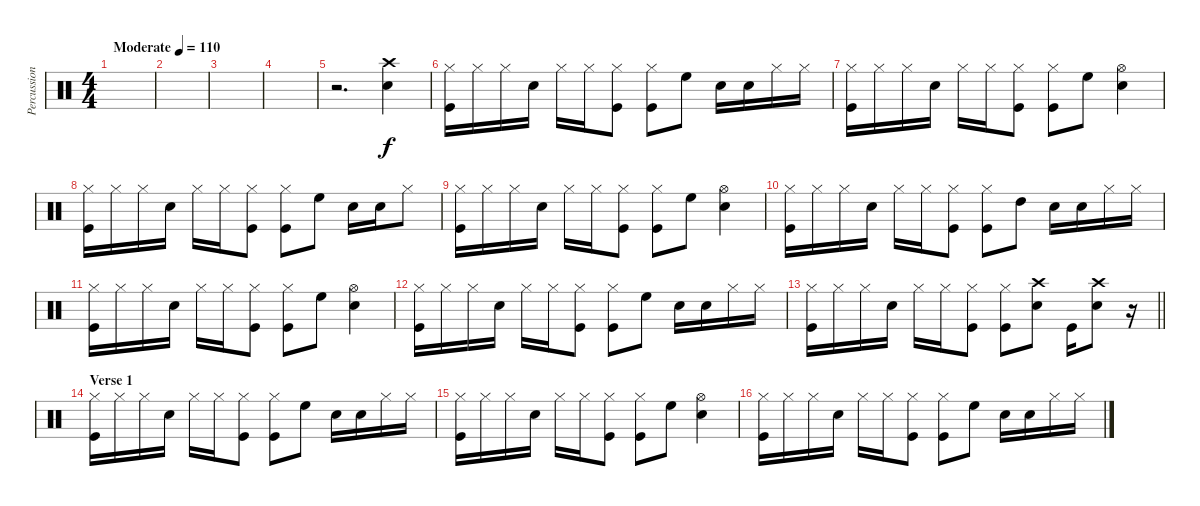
\track ("Percussion" "Percussion") {instrument percussion}
\staff {score}
\articulation defaults
\ts (4 4)
\tempo (110 "Moderate")
\clef neutral
\ks c
|
|
|
|
r.2{d} ("Crash high (hit)" "Snare (hit) 2").4 |
("Kick (hit)" "Hi-Hat (closed)").16 "Hi-Hat (closed)".16 "Hi-Hat (closed)".16 "Snare (hit) 2".16 "Hi-Hat (closed)".16 "Hi-Hat (closed)".16 ("Kick (hit)" "Hi-Hat (closed)").8 ("Kick (hit)" "Hi-Hat (closed)").8 "High Floor Tom (hit)".8 "Snare (hit) 2".16 "Snare (hit) 2".16 "Hi-Hat (closed)".16 "Hi-Hat (closed)".16 |
("Kick (hit)" "Hi-Hat (closed)").16 "Hi-Hat (closed)".16 "Hi-Hat (closed)".16 "Snare (hit) 2".16 "Hi-Hat (closed)".16 "Hi-Hat (closed)".16 ("Kick (hit)" "Hi-Hat (closed)").8 ("Kick (hit)" "Hi-Hat (closed)").8 "High Floor Tom (hit)".8 ("Hi-Hat (open)" "Snare (hit) 2").4 |
("Kick (hit)" "Hi-Hat (closed)").16 "Hi-Hat (closed)".16 "Hi-Hat (closed)".16 "Snare (hit) 2".16 "Hi-Hat (closed)".16 "Hi-Hat (closed)".16 ("Kick (hit)" "Hi-Hat (closed)").8 ("Kick (hit)" "Hi-Hat (closed)").8 "High Floor Tom (hit)".8 "Snare (hit) 2".16 "Snare (hit) 2".16 "Hi-Hat (closed)".8 |
("Kick (hit)" "Hi-Hat (closed)").16 "Hi-Hat (closed)".16 "Hi-Hat (closed)".16 "Snare (hit) 2".16 "Hi-Hat (closed)".16 "Hi-Hat (closed)".16 ("Kick (hit)" "Hi-Hat (closed)").8 ("Kick (hit)" "Hi-Hat (closed)").8 "High Floor Tom (hit)".8 ("Hi-Hat (open)" "Snare (hit) 2").4 |
("Kick (hit)" "Hi-Hat (closed)").16 "Hi-Hat (closed)".16 "Hi-Hat (closed)".16 "Snare (hit) 2".16 "Hi-Hat (closed)".16 "Hi-Hat (closed)".16 ("Kick (hit)" "Hi-Hat (closed)").8 ("Kick (hit)" "Hi-Hat (closed)").8 "High Tom (hit)".8 "Snare (hit) 2".16 "Snare (hit) 2".16 "Hi-Hat (closed)".16 "Hi-Hat (closed)".16 |
("Kick (hit)" "Hi-Hat (closed)").16 "Hi-Hat (closed)".16 "Hi-Hat (closed)".16 "Snare (hit) 2".16 "Hi-Hat (closed)".16 "Hi-Hat (closed)".16 ("Kick (hit)" "Hi-Hat (closed)").8 ("Kick (hit)" "Hi-Hat (closed)").8 "High Floor Tom (hit)".8 ("Hi-Hat (open)" "Snare (hit) 2").4 |
("Kick (hit)" "Hi-Hat (closed)").16 "Hi-Hat (closed)".16 "Hi-Hat (closed)".16 "Snare (hit) 2".16 "Hi-Hat (closed)".16 "Hi-Hat (closed)".16 ("Kick (hit)" "Hi-Hat (closed)").8 ("Kick (hit)" "Hi-Hat (closed)").8 "High Floor Tom (hit)".8 "Snare (hit) 2".16 "Snare (hit) 2".16 "Hi-Hat (closed)".16 "Hi-Hat (closed)".16 |
\barLineRight lightlight
("Kick (hit)" "Hi-Hat (closed)").16 "Hi-Hat (closed)".16 "Hi-Hat (closed)".16 "Snare (hit) 2".16 "Hi-Hat (closed)".16 "Hi-Hat (closed)".16 ("Kick (hit)" "Hi-Hat (closed)").8 ("Kick (hit)" "Hi-Hat (closed)").8 ("Crash high (hit)" "Snare (hit) 2").8 "Kick (hit)".16 ("Crash high (hit)" "Snare (hit) 2").8 r.16 |
\section ("" "Verse 1")
("Kick (hit)" "Hi-Hat (closed)").16 "Hi-Hat (closed)".16 "Hi-Hat (closed)".16 "Snare (hit) 2".16 "Hi-Hat (closed)".16 "Hi-Hat (closed)".16 ("Kick (hit)" "Hi-Hat (closed)").8 ("Kick (hit)" "Hi-Hat (closed)").8 "High Floor Tom (hit)".8 "Snare (hit) 2".16 "Snare (hit) 2".16 "Hi-Hat (closed)".16 "Hi-Hat (closed)".16 |
("Kick (hit)" "Hi-Hat (closed)").16 "Hi-Hat (closed)".16 "Hi-Hat (closed)".16 "Snare (hit) 2".16 "Hi-Hat (closed)".16 "Hi-Hat (closed)".16 ("Kick (hit)" "Hi-Hat (closed)").8 ("Kick (hit)" "Hi-Hat (closed)").8 "High Floor Tom (hit)".8 ("Hi-Hat (open)" "Snare (hit) 2").4 |
("Kick (hit)" "Hi-Hat (closed)").16 "Hi-Hat (closed)".16 "Hi-Hat (closed)".16 "Snare (hit) 2".16 "Hi-Hat (closed)".16 "Hi-Hat (closed)".16 ("Kick (hit)" "Hi-Hat (closed)").8 ("Kick (hit)" "Hi-Hat (closed)").8 "High Floor Tom (hit)".8 "Snare (hit) 2".16 "Snare (hit) 2".16 "Hi-Hat (closed)".16 "Hi-Hat (closed)".16
